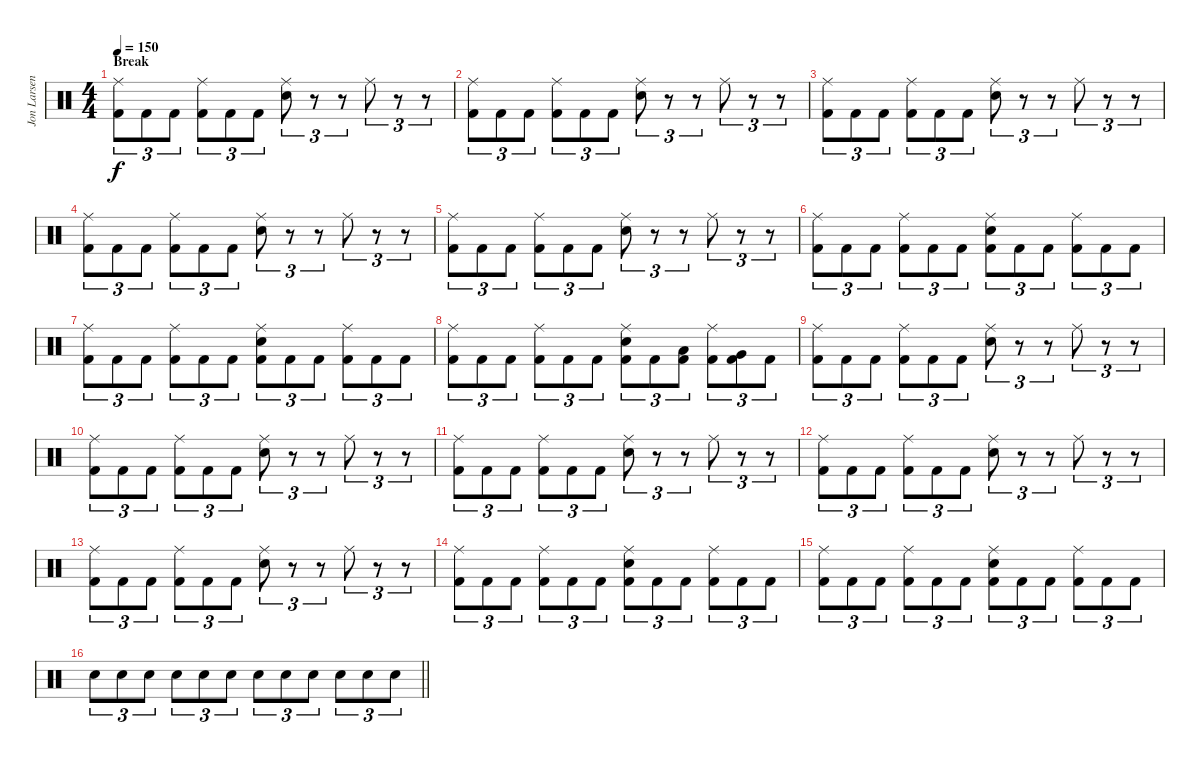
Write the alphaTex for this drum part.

\track ("Jon Larsen" "Jon Larsen") {instrument percussion}
\staff {score}
\articulation defaults
\ts (4 4)
\section ("" "Break")
\tempo 150
\clef neutral
\ks c
("Ride (middle)" "Kick (hit) 2").8{tu (3 2) dy f} "Kick (hit) 2".8{tu (3 2)} "Kick (hit) 2".8{tu (3 2)} ("Ride (middle)" "Kick (hit) 2").8{tu (3 2)} "Kick (hit) 2".8{tu (3 2)} "Kick (hit) 2".8{tu (3 2)} ("Snare (hit) 2" "Ride (middle)").8{tu (3 2)} r.8{tu (3 2)} r.8{tu (3 2)} "Ride (middle)".8{tu (3 2)} r.8{tu (3 2)} r.8{tu (3 2)} |
("Ride (middle)" "Kick (hit) 2").8{tu (3 2)} "Kick (hit) 2".8{tu (3 2)} "Kick (hit) 2".8{tu (3 2)} ("Ride (middle)" "Kick (hit) 2").8{tu (3 2)} "Kick (hit) 2".8{tu (3 2)} "Kick (hit) 2".8{tu (3 2)} ("Snare (hit) 2" "Ride (middle)").8{tu (3 2)} r.8{tu (3 2)} r.8{tu (3 2)} "Ride (middle)".8{tu (3 2)} r.8{tu (3 2)} r.8{tu (3 2)} |
("Ride (middle)" "Kick (hit) 2").8{tu (3 2)} "Kick (hit) 2".8{tu (3 2)} "Kick (hit) 2".8{tu (3 2)} ("Ride (middle)" "Kick (hit) 2").8{tu (3 2)} "Kick (hit) 2".8{tu (3 2)} "Kick (hit) 2".8{tu (3 2)} ("Snare (hit) 2" "Ride (middle)").8{tu (3 2)} r.8{tu (3 2)} r.8{tu (3 2)} "Ride (middle)".8{tu (3 2)} r.8{tu (3 2)} r.8{tu (3 2)} |
("Ride (middle)" "Kick (hit) 2").8{tu (3 2)} "Kick (hit) 2".8{tu (3 2)} "Kick (hit) 2".8{tu (3 2)} ("Ride (middle)" "Kick (hit) 2").8{tu (3 2)} "Kick (hit) 2".8{tu (3 2)} "Kick (hit) 2".8{tu (3 2)} ("Snare (hit) 2" "Ride (middle)").8{tu (3 2)} r.8{tu (3 2)} r.8{tu (3 2)} "Ride (middle)".8{tu (3 2)} r.8{tu (3 2)} r.8{tu (3 2)} |
("Ride (middle)" "Kick (hit) 2").8{tu (3 2)} "Kick (hit) 2".8{tu (3 2)} "Kick (hit) 2".8{tu (3 2)} ("Ride (middle)" "Kick (hit) 2").8{tu (3 2)} "Kick (hit) 2".8{tu (3 2)} "Kick (hit) 2".8{tu (3 2)} ("Snare (hit) 2" "Ride (middle)").8{tu (3 2)} r.8{tu (3 2)} r.8{tu (3 2)} "Ride (middle)".8{tu (3 2)} r.8{tu (3 2)} r.8{tu (3 2)} |
("Ride (middle)" "Kick (hit) 2").8{tu (3 2)} "Kick (hit) 2".8{tu (3 2)} "Kick (hit) 2".8{tu (3 2)} ("Ride (middle)" "Kick (hit) 2").8{tu (3 2)} "Kick (hit) 2".8{tu (3 2)} "Kick (hit) 2".8{tu (3 2)} ("Snare (hit) 2" "Ride (middle)" "Kick (hit) 2").8{tu (3 2)} "Kick (hit) 2".8{tu (3 2)} "Kick (hit) 2".8{tu (3 2)} ("Ride (middle)" "Kick (hit) 2").8{tu (3 2)} "Kick (hit) 2".8{tu (3 2)} "Kick (hit) 2".8{tu (3 2)} |
("Ride (middle)" "Kick (hit) 2").8{tu (3 2)} "Kick (hit) 2".8{tu (3 2)} "Kick (hit) 2".8{tu (3 2)} ("Ride (middle)" "Kick (hit) 2").8{tu (3 2)} "Kick (hit) 2".8{tu (3 2)} "Kick (hit) 2".8{tu (3 2)} ("Snare (hit) 2" "Ride (middle)" "Kick (hit) 2").8{tu (3 2)} "Kick (hit) 2".8{tu (3 2)} "Kick (hit) 2".8{tu (3 2)} ("Ride (middle)" "Kick (hit) 2").8{tu (3 2)} "Kick (hit) 2".8{tu (3 2)} "Kick (hit) 2".8{tu (3 2)} |
("Ride (middle)" "Kick (hit) 2").8{tu (3 2)} "Kick (hit) 2".8{tu (3 2)} "Kick (hit) 2".8{tu (3 2)} ("Ride (middle)" "Kick (hit) 2").8{tu (3 2)} "Kick (hit) 2".8{tu (3 2)} "Kick (hit) 2".8{tu (3 2)} ("Snare (hit) 2" "Ride (middle)" "Kick (hit) 2").8{tu (3 2)} "Kick (hit) 2".8{tu (3 2)} ("Low Tom (hit)" "Kick (hit) 2").8{tu (3 2)} ("Ride (middle)" "Kick (hit) 2").8{tu (3 2)} ("Very Low Tom (hit)" "Kick (hit) 2").8{tu (3 2)} "Kick (hit) 2".8{tu (3 2)} |
("Ride (middle)" "Kick (hit) 2").8{tu (3 2)} "Kick (hit) 2".8{tu (3 2)} "Kick (hit) 2".8{tu (3 2)} ("Ride (middle)" "Kick (hit) 2").8{tu (3 2)} "Kick (hit) 2".8{tu (3 2)} "Kick (hit) 2".8{tu (3 2)} ("Snare (hit) 2" "Ride (middle)").8{tu (3 2)} r.8{tu (3 2)} r.8{tu (3 2)} "Ride (middle)".8{tu (3 2)} r.8{tu (3 2)} r.8{tu (3 2)} |
("Ride (middle)" "Kick (hit) 2").8{tu (3 2)} "Kick (hit) 2".8{tu (3 2)} "Kick (hit) 2".8{tu (3 2)} ("Ride (middle)" "Kick (hit) 2").8{tu (3 2)} "Kick (hit) 2".8{tu (3 2)} "Kick (hit) 2".8{tu (3 2)} ("Snare (hit) 2" "Ride (middle)").8{tu (3 2)} r.8{tu (3 2)} r.8{tu (3 2)} "Ride (middle)".8{tu (3 2)} r.8{tu (3 2)} r.8{tu (3 2)} |
("Ride (middle)" "Kick (hit) 2").8{tu (3 2)} "Kick (hit) 2".8{tu (3 2)} "Kick (hit) 2".8{tu (3 2)} ("Ride (middle)" "Kick (hit) 2").8{tu (3 2)} "Kick (hit) 2".8{tu (3 2)} "Kick (hit) 2".8{tu (3 2)} ("Snare (hit) 2" "Ride (middle)").8{tu (3 2)} r.8{tu (3 2)} r.8{tu (3 2)} "Ride (middle)".8{tu (3 2)} r.8{tu (3 2)} r.8{tu (3 2)} |
("Ride (middle)" "Kick (hit) 2").8{tu (3 2)} "Kick (hit) 2".8{tu (3 2)} "Kick (hit) 2".8{tu (3 2)} ("Ride (middle)" "Kick (hit) 2").8{tu (3 2)} "Kick (hit) 2".8{tu (3 2)} "Kick (hit) 2".8{tu (3 2)} ("Snare (hit) 2" "Ride (middle)").8{tu (3 2)} r.8{tu (3 2)} r.8{tu (3 2)} "Ride (middle)".8{tu (3 2)} r.8{tu (3 2)} r.8{tu (3 2)} |
("Ride (middle)" "Kick (hit) 2").8{tu (3 2)} "Kick (hit) 2".8{tu (3 2)} "Kick (hit) 2".8{tu (3 2)} ("Ride (middle)" "Kick (hit) 2").8{tu (3 2)} "Kick (hit) 2".8{tu (3 2)} "Kick (hit) 2".8{tu (3 2)} ("Snare (hit) 2" "Ride (middle)").8{tu (3 2)} r.8{tu (3 2)} r.8{tu (3 2)} "Ride (middle)".8{tu (3 2)} r.8{tu (3 2)} r.8{tu (3 2)} |
("Ride (middle)" "Kick (hit) 2").8{tu (3 2)} "Kick (hit) 2".8{tu (3 2)} "Kick (hit) 2".8{tu (3 2)} ("Ride (middle)" "Kick (hit) 2").8{tu (3 2)} "Kick (hit) 2".8{tu (3 2)} "Kick (hit) 2".8{tu (3 2)} ("Snare (hit) 2" "Ride (middle)" "Kick (hit) 2").8{tu (3 2)} "Kick (hit) 2".8{tu (3 2)} "Kick (hit) 2".8{tu (3 2)} ("Ride (middle)" "Kick (hit) 2").8{tu (3 2)} "Kick (hit) 2".8{tu (3 2)} "Kick (hit) 2".8{tu (3 2)} |
("Ride (middle)" "Kick (hit) 2").8{tu (3 2)} "Kick (hit) 2".8{tu (3 2)} "Kick (hit) 2".8{tu (3 2)} ("Ride (middle)" "Kick (hit) 2").8{tu (3 2)} "Kick (hit) 2".8{tu (3 2)} "Kick (hit) 2".8{tu (3 2)} ("Snare (hit) 2" "Ride (middle)" "Kick (hit) 2").8{tu (3 2)} "Kick (hit) 2".8{tu (3 2)} "Kick (hit) 2".8{tu (3 2)} ("Ride (middle)" "Kick (hit) 2").8{tu (3 2)} "Kick (hit) 2".8{tu (3 2)} "Kick (hit) 2".8{tu (3 2)} |
\barLineRight lightlight "Snare (hit) 2".8{tu (3 2)} "Snare (hit) 2".8{tu (3 2)} "Snare (hit) 2".8{tu (3 2)} "Snare (hit) 2".8{tu (3 2)} "Snare (hit) 2".8{tu (3 2)} "Snare (hit) 2".8{tu (3 2)} "Snare (hit) 2".8{tu (3 2)} "Snare (hit) 2".8{tu (3 2)} "Snare (hit) 2".8{tu (3 2)} "Snare (hit) 2".8{tu (3 2)} "Snare (hit) 2".8{tu (3 2)} "Snare (hit) 2".8{tu (3 2)}
